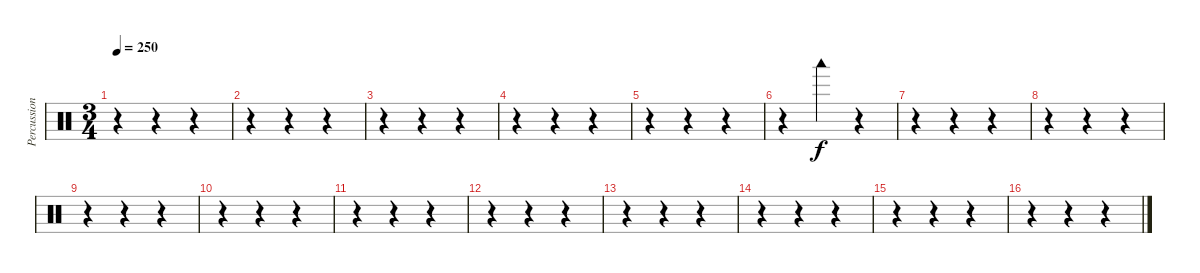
\track ("Percussions" "Percussion") {instrument percussion}
\staff {score}
\articulation defaults
\ts (3 4)
\tempo 250
\clef neutral
\ks c
r.4{dy f} r.4 r.4 |
r.4 r.4 r.4 |
r.4 r.4 r.4 |
r.4 r.4 r.4 |
r.4 r.4 r.4 |
r.4 "Woodblock low (hit)".4 r.4 |
r.4 r.4 r.4 |
r.4 r.4 r.4 |
r.4 r.4 r.4 |
r.4 r.4 r.4 |
r.4 r.4 r.4 |
r.4 r.4 r.4 |
r.4 r.4 r.4 |
r.4 r.4 r.4 |
r.4 r.4 r.4 |
r.4 r.4 r.4
